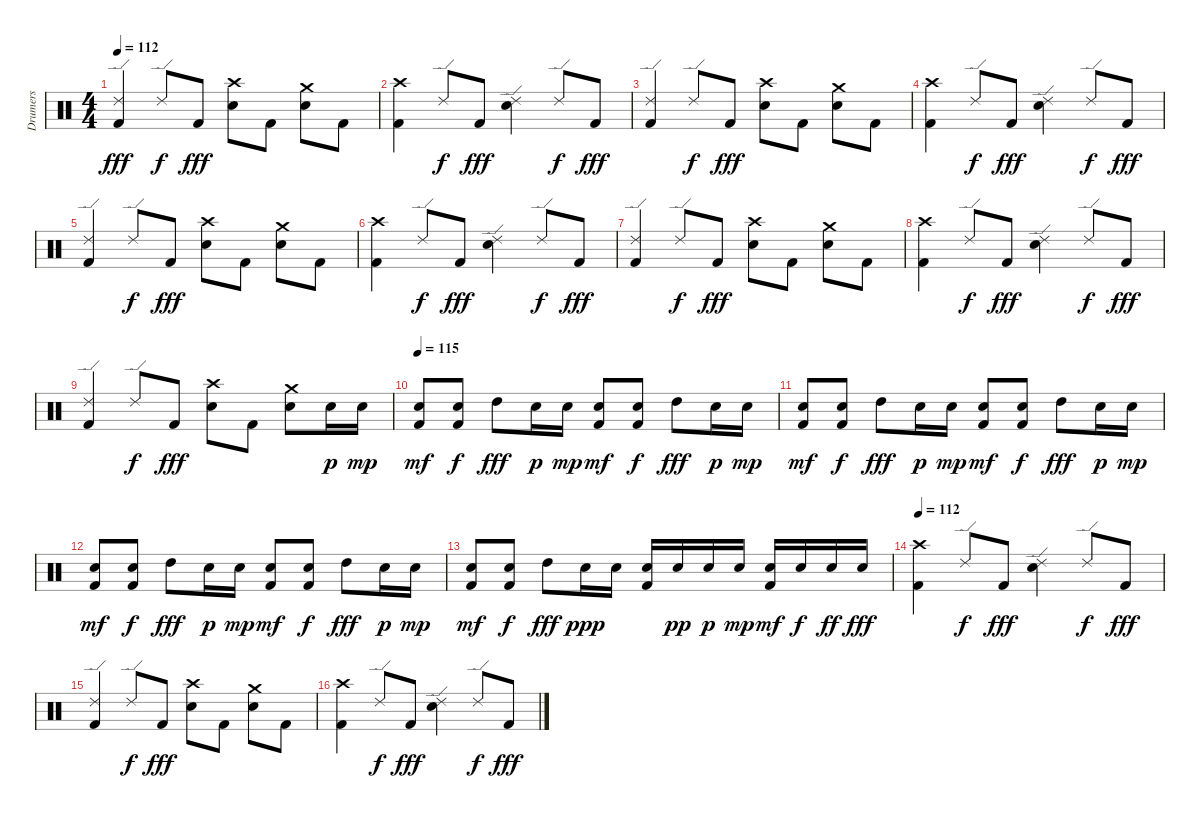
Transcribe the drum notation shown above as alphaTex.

\track ("Drumers" "Drumers") {instrument percussion}
\staff {score}
\articulation defaults
\ts (4 4)
\tempo 112
\clef neutral
\ks c
("Ride (edge) 2" "Kick (hit) 2").4{dy fff} "Ride (edge) 2".8{dy f} "Kick (hit) 2".8{dy fff} ("Crash high (hit)" "Electric Snare (hit)").8 "Kick (hit) 2".8 ("Crash medium (hit)" "Electric Snare (hit)").8 "Kick (hit) 2".8 |
("Crash high (hit)" "Kick (hit) 2").4 "Ride (edge) 2".8{dy f} "Kick (hit) 2".8{dy fff} ("Ride (edge) 2" "Electric Snare (hit)").4 "Ride (edge) 2".8{dy f} "Kick (hit) 2".8{dy fff} |
("Ride (edge) 2" "Kick (hit) 2").4 "Ride (edge) 2".8{dy f} "Kick (hit) 2".8{dy fff} ("Crash high (hit)" "Electric Snare (hit)").8 "Kick (hit) 2".8 ("Crash medium (hit)" "Electric Snare (hit)").8 "Kick (hit) 2".8 |
("Crash high (hit)" "Kick (hit) 2").4 "Ride (edge) 2".8{dy f} "Kick (hit) 2".8{dy fff} ("Ride (edge) 2" "Electric Snare (hit)").4 "Ride (edge) 2".8{dy f} "Kick (hit) 2".8{dy fff} |
("Ride (edge) 2" "Kick (hit) 2").4 "Ride (edge) 2".8{dy f} "Kick (hit) 2".8{dy fff} ("Crash high (hit)" "Electric Snare (hit)").8 "Kick (hit) 2".8 ("Crash medium (hit)" "Electric Snare (hit)").8 "Kick (hit) 2".8 |
("Crash high (hit)" "Kick (hit) 2").4 "Ride (edge) 2".8{dy f} "Kick (hit) 2".8{dy fff} ("Ride (edge) 2" "Electric Snare (hit)").4 "Ride (edge) 2".8{dy f} "Kick (hit) 2".8{dy fff} |
("Ride (edge) 2" "Kick (hit) 2").4 "Ride (edge) 2".8{dy f} "Kick (hit) 2".8{dy fff} ("Crash high (hit)" "Electric Snare (hit)").8 "Kick (hit) 2".8 ("Crash medium (hit)" "Electric Snare (hit)").8 "Kick (hit) 2".8 |
("Crash high (hit)" "Kick (hit) 2").4 "Ride (edge) 2".8{dy f} "Kick (hit) 2".8{dy fff} ("Ride (edge) 2" "Electric Snare (hit)").4 "Ride (edge) 2".8{dy f} "Kick (hit) 2".8{dy fff} |
("Ride (edge) 2" "Kick (hit) 2").4 "Ride (edge) 2".8{dy f} "Kick (hit) 2".8{dy fff} ("Crash high (hit)" "Electric Snare (hit)").8 "Kick (hit) 2".8 ("Crash medium (hit)" "Electric Snare (hit)").8 "Electric Snare (hit)".16{dy p} "Electric Snare (hit)".16{dy mp} |
\tempo 115
("Electric Snare (hit)" "Kick (hit) 2").8{dy mf} ("Electric Snare (hit)" "Kick (hit) 2").8{dy f} "High Tom (hit)".8{dy fff} "Electric Snare (hit)".16{dy p} "Electric Snare (hit)".16{dy mp} ("Electric Snare (hit)" "Kick (hit) 2").8{dy mf} ("Electric Snare (hit)" "Kick (hit) 2").8{dy f} "High Tom (hit)".8{dy fff} "Electric Snare (hit)".16{dy p} "Electric Snare (hit)".16{dy mp} |
("Electric Snare (hit)" "Kick (hit) 2").8{dy mf} ("Electric Snare (hit)" "Kick (hit) 2").8{dy f} "High Tom (hit)".8{dy fff} "Electric Snare (hit)".16{dy p} "Electric Snare (hit)".16{dy mp} ("Electric Snare (hit)" "Kick (hit) 2").8{dy mf} ("Electric Snare (hit)" "Kick (hit) 2").8{dy f} "High Tom (hit)".8{dy fff} "Electric Snare (hit)".16{dy p} "Electric Snare (hit)".16{dy mp} |
("Electric Snare (hit)" "Kick (hit) 2").8{dy mf} ("Electric Snare (hit)" "Kick (hit) 2").8{dy f} "High Tom (hit)".8{dy fff} "Electric Snare (hit)".16{dy p} "Electric Snare (hit)".16{dy mp} ("Electric Snare (hit)" "Kick (hit) 2").8{dy mf} ("Electric Snare (hit)" "Kick (hit) 2").8{dy f} "High Tom (hit)".8{dy fff} "Electric Snare (hit)".16{dy p} "Electric Snare (hit)".16{dy mp} |
("Electric Snare (hit)" "Kick (hit) 2").8{dy mf} ("Electric Snare (hit)" "Kick (hit) 2").8{dy f} "High Tom (hit)".8{dy fff} "Electric Snare (hit)".16{dy ppp} "Electric Snare (hit)".16 ("Electric Snare (hit)" "Kick (hit) 2").16 "Electric Snare (hit)".16{dy pp} "Electric Snare (hit)".16{dy p} "Electric Snare (hit)".16{dy mp} ("Electric Snare (hit)" "Kick (hit) 2").16{dy mf} "Electric Snare (hit)".16{dy f} "Electric Snare (hit)".16{dy ff} "Electric Snare (hit)".16{dy fff} |
\tempo 112
("Crash high (hit)" "Kick (hit) 2").4 "Ride (edge) 2".8{dy f} "Kick (hit) 2".8{dy fff} ("Ride (edge) 2" "Electric Snare (hit)").4 "Ride (edge) 2".8{dy f} "Kick (hit) 2".8{dy fff} |
("Ride (edge) 2" "Kick (hit) 2").4 "Ride (edge) 2".8{dy f} "Kick (hit) 2".8{dy fff} ("Crash high (hit)" "Electric Snare (hit)").8 "Kick (hit) 2".8 ("Crash medium (hit)" "Electric Snare (hit)").8 "Kick (hit) 2".8 |
("Crash high (hit)" "Kick (hit) 2").4 "Ride (edge) 2".8{dy f} "Kick (hit) 2".8{dy fff} ("Ride (edge) 2" "Electric Snare (hit)").4 "Ride (edge) 2".8{dy f} "Kick (hit) 2".8{dy fff}
